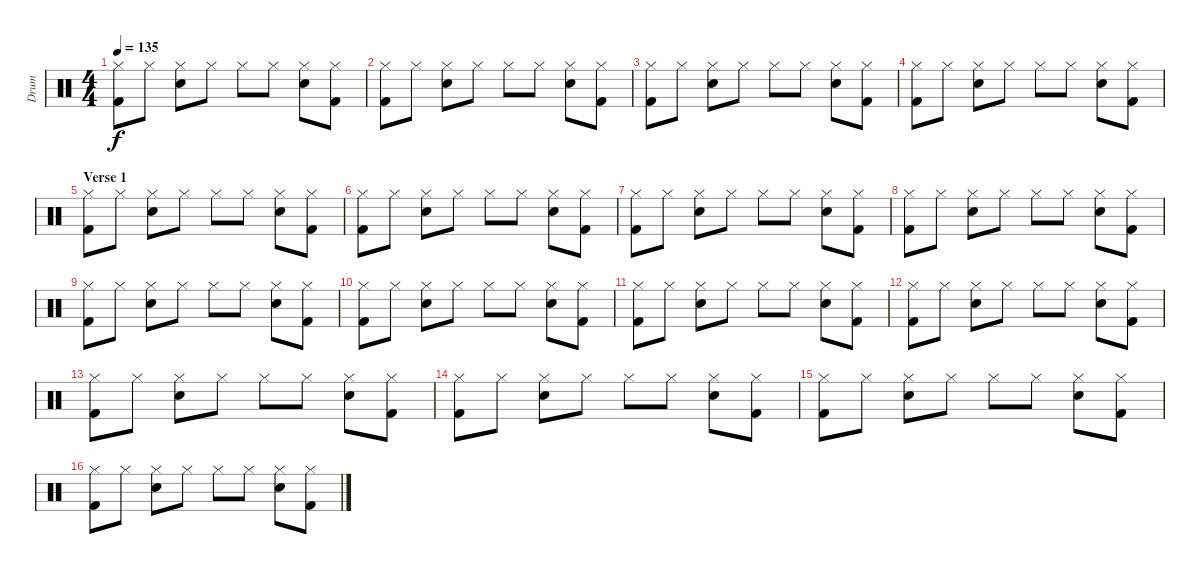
\track ("Drum" "Drum") {instrument percussion}
\staff {score}
\articulation defaults
\ts (4 4)
\tempo 135
\clef neutral
\ks c
("Hi-Hat (closed)" "Kick (hit) 2").8{dy f} "Hi-Hat (closed)".8 ("Snare (hit) 2" "Hi-Hat (closed)").8 "Hi-Hat (closed)".8 "Hi-Hat (closed)".8 "Hi-Hat (closed)".8 ("Snare (hit) 2" "Hi-Hat (closed)").8 ("Hi-Hat (closed)" "Kick (hit) 2").8 |
("Hi-Hat (closed)" "Kick (hit) 2").8 "Hi-Hat (closed)".8 ("Snare (hit) 2" "Hi-Hat (closed)").8 "Hi-Hat (closed)".8 "Hi-Hat (closed)".8 "Hi-Hat (closed)".8 ("Snare (hit) 2" "Hi-Hat (closed)").8 ("Hi-Hat (closed)" "Kick (hit) 2").8 |
("Hi-Hat (closed)" "Kick (hit) 2").8 "Hi-Hat (closed)".8 ("Snare (hit) 2" "Hi-Hat (closed)").8 "Hi-Hat (closed)".8 "Hi-Hat (closed)".8 "Hi-Hat (closed)".8 ("Snare (hit) 2" "Hi-Hat (closed)").8 ("Hi-Hat (closed)" "Kick (hit) 2").8 |
("Hi-Hat (closed)" "Kick (hit) 2").8 "Hi-Hat (closed)".8 ("Snare (hit) 2" "Hi-Hat (closed)").8 "Hi-Hat (closed)".8 "Hi-Hat (closed)".8 "Hi-Hat (closed)".8 ("Snare (hit) 2" "Hi-Hat (closed)").8 ("Hi-Hat (closed)" "Kick (hit) 2").8 |
\section ("" "Verse 1")
("Hi-Hat (closed)" "Kick (hit) 2").8 "Hi-Hat (closed)".8 ("Snare (hit) 2" "Hi-Hat (closed)").8 "Hi-Hat (closed)".8 "Hi-Hat (closed)".8 "Hi-Hat (closed)".8 ("Snare (hit) 2" "Hi-Hat (closed)").8 ("Hi-Hat (closed)" "Kick (hit) 2").8 |
("Hi-Hat (closed)" "Kick (hit) 2").8 "Hi-Hat (closed)".8 ("Snare (hit) 2" "Hi-Hat (closed)").8 "Hi-Hat (closed)".8 "Hi-Hat (closed)".8 "Hi-Hat (closed)".8 ("Snare (hit) 2" "Hi-Hat (closed)").8 ("Hi-Hat (closed)" "Kick (hit) 2").8 |
("Hi-Hat (closed)" "Kick (hit) 2").8 "Hi-Hat (closed)".8 ("Snare (hit) 2" "Hi-Hat (closed)").8 "Hi-Hat (closed)".8 "Hi-Hat (closed)".8 "Hi-Hat (closed)".8 ("Snare (hit) 2" "Hi-Hat (closed)").8 ("Hi-Hat (closed)" "Kick (hit) 2").8 |
("Hi-Hat (closed)" "Kick (hit) 2").8 "Hi-Hat (closed)".8 ("Snare (hit) 2" "Hi-Hat (closed)").8 "Hi-Hat (closed)".8 "Hi-Hat (closed)".8 "Hi-Hat (closed)".8 ("Snare (hit) 2" "Hi-Hat (closed)").8 ("Hi-Hat (closed)" "Kick (hit) 2").8 |
("Hi-Hat (closed)" "Kick (hit) 2").8 "Hi-Hat (closed)".8 ("Snare (hit) 2" "Hi-Hat (closed)").8 "Hi-Hat (closed)".8 "Hi-Hat (closed)".8 "Hi-Hat (closed)".8 ("Snare (hit) 2" "Hi-Hat (closed)").8 ("Hi-Hat (closed)" "Kick (hit) 2").8 |
("Hi-Hat (closed)" "Kick (hit) 2").8 "Hi-Hat (closed)".8 ("Snare (hit) 2" "Hi-Hat (closed)").8 "Hi-Hat (closed)".8 "Hi-Hat (closed)".8 "Hi-Hat (closed)".8 ("Snare (hit) 2" "Hi-Hat (closed)").8 ("Hi-Hat (closed)" "Kick (hit) 2").8 |
("Hi-Hat (closed)" "Kick (hit) 2").8 "Hi-Hat (closed)".8 ("Snare (hit) 2" "Hi-Hat (closed)").8 "Hi-Hat (closed)".8 "Hi-Hat (closed)".8 "Hi-Hat (closed)".8 ("Snare (hit) 2" "Hi-Hat (closed)").8 ("Hi-Hat (closed)" "Kick (hit) 2").8 |
("Hi-Hat (closed)" "Kick (hit) 2").8 "Hi-Hat (closed)".8 ("Snare (hit) 2" "Hi-Hat (closed)").8 "Hi-Hat (closed)".8 "Hi-Hat (closed)".8 "Hi-Hat (closed)".8 ("Snare (hit) 2" "Hi-Hat (closed)").8 ("Hi-Hat (closed)" "Kick (hit) 2").8 |
("Hi-Hat (closed)" "Kick (hit) 2").8 "Hi-Hat (closed)".8 ("Snare (hit) 2" "Hi-Hat (closed)").8 "Hi-Hat (closed)".8 "Hi-Hat (closed)".8 "Hi-Hat (closed)".8 ("Snare (hit) 2" "Hi-Hat (closed)").8 ("Hi-Hat (closed)" "Kick (hit) 2").8 |
("Hi-Hat (closed)" "Kick (hit) 2").8 "Hi-Hat (closed)".8 ("Snare (hit) 2" "Hi-Hat (closed)").8 "Hi-Hat (closed)".8 "Hi-Hat (closed)".8 "Hi-Hat (closed)".8 ("Snare (hit) 2" "Hi-Hat (closed)").8 ("Hi-Hat (closed)" "Kick (hit) 2").8 |
("Hi-Hat (closed)" "Kick (hit) 2").8 "Hi-Hat (closed)".8 ("Snare (hit) 2" "Hi-Hat (closed)").8 "Hi-Hat (closed)".8 "Hi-Hat (closed)".8 "Hi-Hat (closed)".8 ("Snare (hit) 2" "Hi-Hat (closed)").8 ("Hi-Hat (closed)" "Kick (hit) 2").8 |
("Hi-Hat (closed)" "Kick (hit) 2").8 "Hi-Hat (closed)".8 ("Snare (hit) 2" "Hi-Hat (closed)").8 "Hi-Hat (closed)".8 "Hi-Hat (closed)".8 "Hi-Hat (closed)".8 ("Snare (hit) 2" "Hi-Hat (closed)").8 ("Hi-Hat (closed)" "Kick (hit) 2").8
